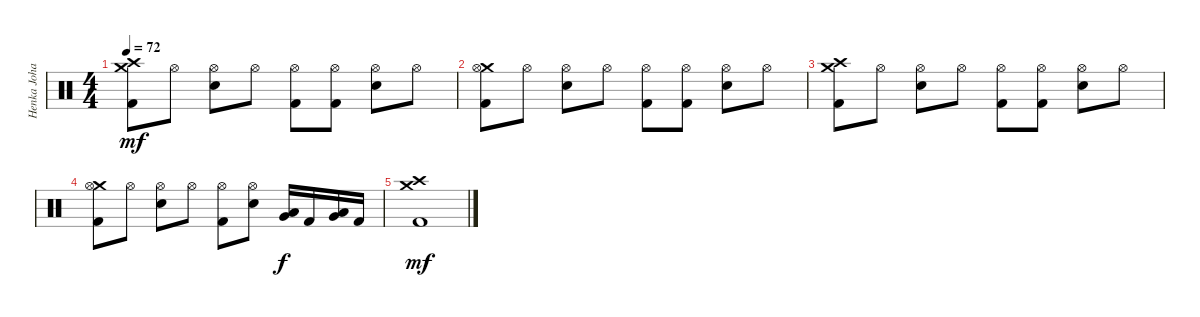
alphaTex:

\track ("Henka Johansson" "Henka Joha") {instrument percussion}
\staff {score}
\articulation defaults
\ts (4 4)
\tempo 72
\clef neutral
\ks c
("Crash medium (hit)" "Crash high (hit)" "Kick (hit) 2").8{dy mf} "Hi-Hat (open)".8 ("Hi-Hat (open)" "Electric Snare (hit)").8 "Hi-Hat (open)".8 ("Hi-Hat (open)" "Kick (hit) 2").8 ("Hi-Hat (open)" "Kick (hit) 2").8 ("Hi-Hat (open)" "Electric Snare (hit)").8 "Hi-Hat (open)".8 |
("Crash medium (hit)" "Hi-Hat (open)" "Kick (hit) 2").8 "Hi-Hat (open)".8 ("Hi-Hat (open)" "Electric Snare (hit)").8 "Hi-Hat (open)".8 ("Hi-Hat (open)" "Kick (hit) 2").8 ("Hi-Hat (open)" "Kick (hit) 2").8 ("Hi-Hat (open)" "Electric Snare (hit)").8 "Hi-Hat (open)".8 |
("Crash medium (hit)" "Crash high (hit)" "Kick (hit) 2").8 "Hi-Hat (open)".8 ("Hi-Hat (open)" "Electric Snare (hit)").8 "Hi-Hat (open)".8 ("Hi-Hat (open)" "Kick (hit) 2").8 ("Hi-Hat (open)" "Kick (hit) 2").8 ("Hi-Hat (open)" "Electric Snare (hit)").8 "Hi-Hat (open)".8 |
("Crash medium (hit)" "Hi-Hat (open)" "Kick (hit) 2").8 "Hi-Hat (open)".8 ("Hi-Hat (open)" "Electric Snare (hit)").8 "Hi-Hat (open)".8 ("Hi-Hat (open)" "Kick (hit) 2").8 ("Hi-Hat (open)" "Electric Snare (hit)").8 ("Very Low Tom (hit)" "Low Floor Tom (hit)").16{dy f} "Kick (hit) 2".16 ("Very Low Tom (hit)" "Low Floor Tom (hit)").16 "Kick (hit) 2".16 |
("Crash medium (hit)" "Crash high (hit)" "Kick (hit) 2").1{dy mf}
